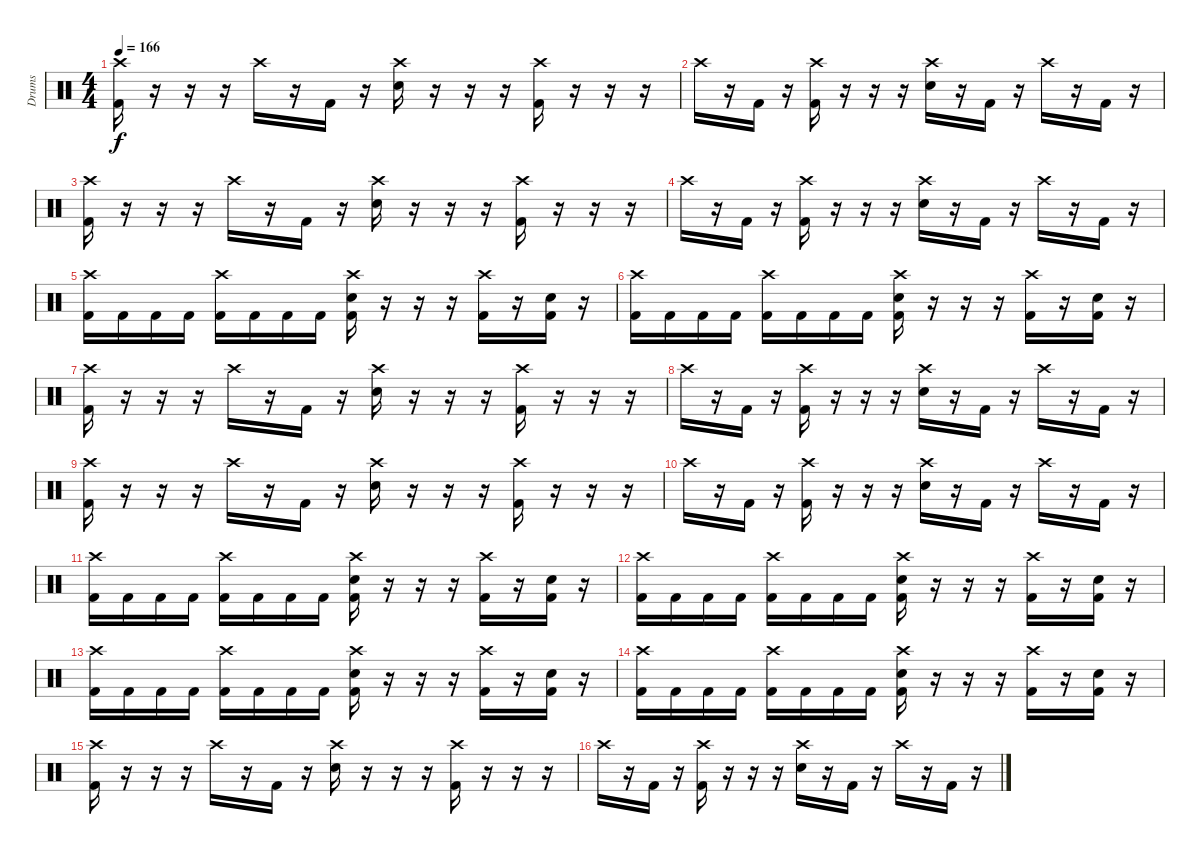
\track ("Drums" "Drums") {instrument percussion}
\staff {score}
\articulation defaults
\ts (4 4)
\tempo 166
\clef neutral
\ks c
("Crash high (hit)" "Kick (hit) 2").16{dy f} r.16 r.16 r.16 "Crash high (hit)".16 r.16 "Kick (hit) 2".16 r.16 ("Crash high (hit)" "Electric Snare (hit)").16 r.16 r.16 r.16 ("Crash high (hit)" "Kick (hit) 2").16 r.16 r.16 r.16 |
"Crash high (hit)".16 r.16 "Kick (hit) 2".16 r.16 ("Crash high (hit)" "Kick (hit) 2").16 r.16 r.16 r.16 ("Crash high (hit)" "Electric Snare (hit)").16 r.16 "Kick (hit) 2".16 r.16 "Crash high (hit)".16 r.16 "Kick (hit) 2".16 r.16 |
("Crash high (hit)" "Kick (hit) 2").16 r.16 r.16 r.16 "Crash high (hit)".16 r.16 "Kick (hit) 2".16 r.16 ("Crash high (hit)" "Electric Snare (hit)").16 r.16 r.16 r.16 ("Crash high (hit)" "Kick (hit) 2").16 r.16 r.16 r.16 |
"Crash high (hit)".16 r.16 "Kick (hit) 2".16 r.16 ("Crash high (hit)" "Kick (hit) 2").16 r.16 r.16 r.16 ("Crash high (hit)" "Electric Snare (hit)").16 r.16 "Kick (hit) 2".16 r.16 "Crash high (hit)".16 r.16 "Kick (hit) 2".16 r.16 |
("Crash high (hit)" "Kick (hit) 2").16 "Kick (hit) 2".16 "Kick (hit) 2".16 "Kick (hit) 2".16 ("Crash high (hit)" "Kick (hit) 2").16 "Kick (hit) 2".16 "Kick (hit) 2".16 "Kick (hit) 2".16 ("Crash high (hit)" "Electric Snare (hit)" "Kick (hit) 2").16 r.16 r.16 r.16 ("Crash high (hit)" "Kick (hit) 2").16 r.16 ("Electric Snare (hit)" "Kick (hit) 2").16 r.16 |
("Crash high (hit)" "Kick (hit) 2").16 "Kick (hit) 2".16 "Kick (hit) 2".16 "Kick (hit) 2".16 ("Crash high (hit)" "Kick (hit) 2").16 "Kick (hit) 2".16 "Kick (hit) 2".16 "Kick (hit) 2".16 ("Crash high (hit)" "Electric Snare (hit)" "Kick (hit) 2").16 r.16 r.16 r.16 ("Crash high (hit)" "Kick (hit) 2").16 r.16 ("Electric Snare (hit)" "Kick (hit) 2").16 r.16 |
("Crash high (hit)" "Kick (hit) 2").16 r.16 r.16 r.16 "Crash high (hit)".16 r.16 "Kick (hit) 2".16 r.16 ("Crash high (hit)" "Electric Snare (hit)").16 r.16 r.16 r.16 ("Crash high (hit)" "Kick (hit) 2").16 r.16 r.16 r.16 |
"Crash high (hit)".16 r.16 "Kick (hit) 2".16 r.16 ("Crash high (hit)" "Kick (hit) 2").16 r.16 r.16 r.16 ("Crash high (hit)" "Electric Snare (hit)").16 r.16 "Kick (hit) 2".16 r.16 "Crash high (hit)".16 r.16 "Kick (hit) 2".16 r.16 |
("Crash high (hit)" "Kick (hit) 2").16 r.16 r.16 r.16 "Crash high (hit)".16 r.16 "Kick (hit) 2".16 r.16 ("Crash high (hit)" "Electric Snare (hit)").16 r.16 r.16 r.16 ("Crash high (hit)" "Kick (hit) 2").16 r.16 r.16 r.16 |
"Crash high (hit)".16 r.16 "Kick (hit) 2".16 r.16 ("Crash high (hit)" "Kick (hit) 2").16 r.16 r.16 r.16 ("Crash high (hit)" "Electric Snare (hit)").16 r.16 "Kick (hit) 2".16 r.16 "Crash high (hit)".16 r.16 "Kick (hit) 2".16 r.16 |
("Crash high (hit)" "Kick (hit) 2").16 "Kick (hit) 2".16 "Kick (hit) 2".16 "Kick (hit) 2".16 ("Crash high (hit)" "Kick (hit) 2").16 "Kick (hit) 2".16 "Kick (hit) 2".16 "Kick (hit) 2".16 ("Crash high (hit)" "Electric Snare (hit)" "Kick (hit) 2").16 r.16 r.16 r.16 ("Crash high (hit)" "Kick (hit) 2").16 r.16 ("Electric Snare (hit)" "Kick (hit) 2").16 r.16 |
("Crash high (hit)" "Kick (hit) 2").16 "Kick (hit) 2".16 "Kick (hit) 2".16 "Kick (hit) 2".16 ("Crash high (hit)" "Kick (hit) 2").16 "Kick (hit) 2".16 "Kick (hit) 2".16 "Kick (hit) 2".16 ("Crash high (hit)" "Electric Snare (hit)" "Kick (hit) 2").16 r.16 r.16 r.16 ("Crash high (hit)" "Kick (hit) 2").16 r.16 ("Electric Snare (hit)" "Kick (hit) 2").16 r.16 |
("Crash high (hit)" "Kick (hit) 2").16 "Kick (hit) 2".16 "Kick (hit) 2".16 "Kick (hit) 2".16 ("Crash high (hit)" "Kick (hit) 2").16 "Kick (hit) 2".16 "Kick (hit) 2".16 "Kick (hit) 2".16 ("Crash high (hit)" "Electric Snare (hit)" "Kick (hit) 2").16 r.16 r.16 r.16 ("Crash high (hit)" "Kick (hit) 2").16 r.16 ("Electric Snare (hit)" "Kick (hit) 2").16 r.16 |
("Crash high (hit)" "Kick (hit) 2").16 "Kick (hit) 2".16 "Kick (hit) 2".16 "Kick (hit) 2".16 ("Crash high (hit)" "Kick (hit) 2").16 "Kick (hit) 2".16 "Kick (hit) 2".16 "Kick (hit) 2".16 ("Crash high (hit)" "Electric Snare (hit)" "Kick (hit) 2").16 r.16 r.16 r.16 ("Crash high (hit)" "Kick (hit) 2").16 r.16 ("Electric Snare (hit)" "Kick (hit) 2").16 r.16 |
("Crash high (hit)" "Kick (hit) 2").16 r.16 r.16 r.16 "Crash high (hit)".16 r.16 "Kick (hit) 2".16 r.16 ("Crash high (hit)" "Electric Snare (hit)").16 r.16 r.16 r.16 ("Crash high (hit)" "Kick (hit) 2").16 r.16 r.16 r.16 |
"Crash high (hit)".16 r.16 "Kick (hit) 2".16 r.16 ("Crash high (hit)" "Kick (hit) 2").16 r.16 r.16 r.16 ("Crash high (hit)" "Electric Snare (hit)").16 r.16 "Kick (hit) 2".16 r.16 "Crash high (hit)".16 r.16 "Kick (hit) 2".16 r.16
